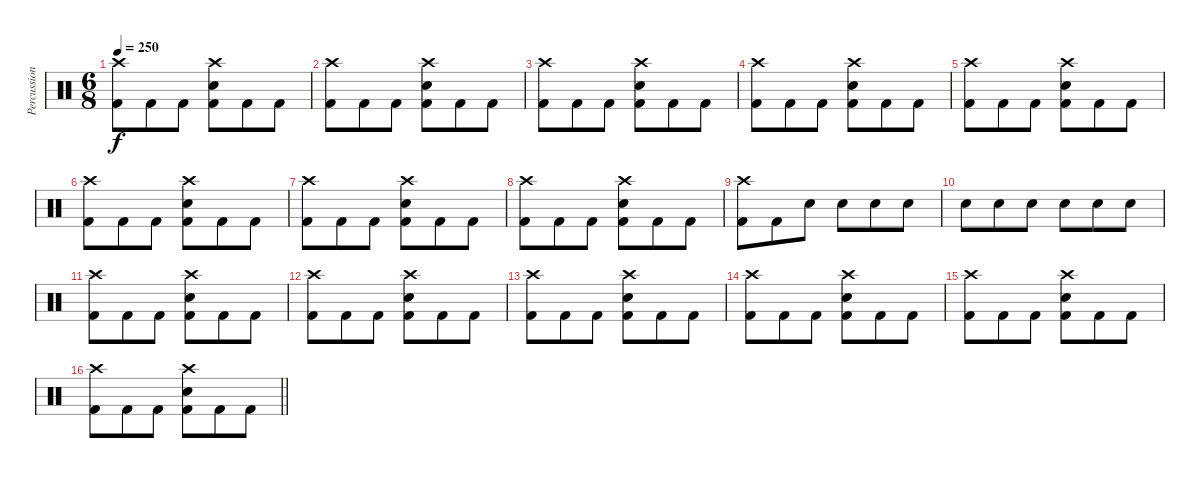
\track ("Percussion" "Percussion") {instrument percussion}
\staff {score}
\articulation defaults
\ts (6 8)
\tempo 250
\clef neutral
\ks c
("Crash high (hit)" "Kick (hit) 2").8{dy f} "Kick (hit) 2".8 "Kick (hit) 2".8 ("Crash high (hit)" "Electric Snare (hit)" "Kick (hit) 2").8 "Kick (hit) 2".8 "Kick (hit) 2".8 |
("Crash high (hit)" "Kick (hit) 2").8 "Kick (hit) 2".8 "Kick (hit) 2".8 ("Crash high (hit)" "Electric Snare (hit)" "Kick (hit) 2").8 "Kick (hit) 2".8 "Kick (hit) 2".8 |
("Crash high (hit)" "Kick (hit) 2").8 "Kick (hit) 2".8 "Kick (hit) 2".8 ("Crash high (hit)" "Electric Snare (hit)" "Kick (hit) 2").8 "Kick (hit) 2".8 "Kick (hit) 2".8 |
("Crash high (hit)" "Kick (hit) 2").8 "Kick (hit) 2".8 "Kick (hit) 2".8 ("Crash high (hit)" "Electric Snare (hit)" "Kick (hit) 2").8 "Kick (hit) 2".8 "Kick (hit) 2".8 |
("Crash high (hit)" "Kick (hit) 2").8 "Kick (hit) 2".8 "Kick (hit) 2".8 ("Crash high (hit)" "Electric Snare (hit)" "Kick (hit) 2").8 "Kick (hit) 2".8 "Kick (hit) 2".8 |
("Crash high (hit)" "Kick (hit) 2").8 "Kick (hit) 2".8 "Kick (hit) 2".8 ("Crash high (hit)" "Electric Snare (hit)" "Kick (hit) 2").8 "Kick (hit) 2".8 "Kick (hit) 2".8 |
("Crash high (hit)" "Kick (hit) 2").8 "Kick (hit) 2".8 "Kick (hit) 2".8 ("Crash high (hit)" "Electric Snare (hit)" "Kick (hit) 2").8 "Kick (hit) 2".8 "Kick (hit) 2".8 |
("Crash high (hit)" "Kick (hit) 2").8 "Kick (hit) 2".8 "Kick (hit) 2".8 ("Crash high (hit)" "Electric Snare (hit)" "Kick (hit) 2").8 "Kick (hit) 2".8 "Kick (hit) 2".8 |
("Crash high (hit)" "Kick (hit) 2").8 "Kick (hit) 2".8 "Electric Snare (hit)".8 "Electric Snare (hit)".8 "Electric Snare (hit)".8 "Electric Snare (hit)".8 |
"Electric Snare (hit)".8 "Electric Snare (hit)".8 "Electric Snare (hit)".8 "Electric Snare (hit)".8 "Electric Snare (hit)".8 "Electric Snare (hit)".8 |
("Crash high (hit)" "Kick (hit) 2").8 "Kick (hit) 2".8 "Kick (hit) 2".8 ("Crash high (hit)" "Electric Snare (hit)" "Kick (hit) 2").8 "Kick (hit) 2".8 "Kick (hit) 2".8 |
("Crash high (hit)" "Kick (hit) 2").8 "Kick (hit) 2".8 "Kick (hit) 2".8 ("Crash high (hit)" "Electric Snare (hit)" "Kick (hit) 2").8 "Kick (hit) 2".8 "Kick (hit) 2".8 |
("Crash high (hit)" "Kick (hit) 2").8 "Kick (hit) 2".8 "Kick (hit) 2".8 ("Crash high (hit)" "Electric Snare (hit)" "Kick (hit) 2").8 "Kick (hit) 2".8 "Kick (hit) 2".8 |
("Crash high (hit)" "Kick (hit) 2").8 "Kick (hit) 2".8 "Kick (hit) 2".8 ("Crash high (hit)" "Electric Snare (hit)" "Kick (hit) 2").8 "Kick (hit) 2".8 "Kick (hit) 2".8 |
("Crash high (hit)" "Kick (hit) 2").8 "Kick (hit) 2".8 "Kick (hit) 2".8 ("Crash high (hit)" "Electric Snare (hit)" "Kick (hit) 2").8 "Kick (hit) 2".8 "Kick (hit) 2".8 |
\barLineRight lightlight
("Crash high (hit)" "Kick (hit) 2").8 "Kick (hit) 2".8 "Kick (hit) 2".8 ("Crash high (hit)" "Electric Snare (hit)" "Kick (hit) 2").8 "Kick (hit) 2".8 "Kick (hit) 2".8
